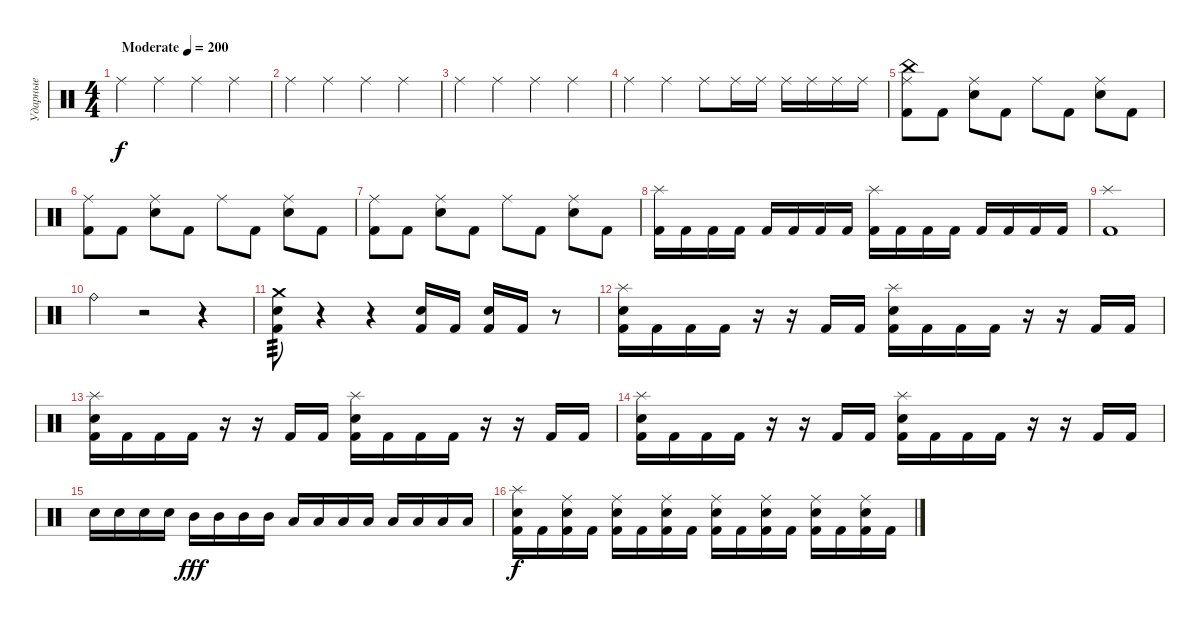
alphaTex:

\track ("Ударные" "Ударные") {instrument percussion}
\staff {score}
\articulation defaults
\ts (4 4)
\tempo (200 "Moderate")
\clef neutral
\ks c "Ride (middle)".4{dy f} "Ride (middle)".4 "Ride (middle)".4 "Ride (middle)".4
|
"Ride (middle)".4 "Ride (middle)".4 "Ride (middle)".4 "Ride (middle)".4 |
"Ride (middle)".4 "Ride (middle)".4 "Ride (middle)".4 "Ride (middle)".4 |
"Ride (middle)".4 "Ride (middle)".4 "Ride (middle)".8 "Ride (middle)".16 "Ride (middle)".16 "Ride (middle)".16 "Ride (middle)".16 "Ride (middle)".16 "Ride (middle)".16 |
("China (hit)" "Ride (middle)" "Kick (hit) 2").8 "Kick (hit) 2".8 ("Ride (middle)" "Electric Snare (hit)").8 "Kick (hit) 2".8 "Ride (middle)".8 "Kick (hit) 2".8 ("Ride (middle)" "Electric Snare (hit)").8 "Kick (hit) 2".8 |
("Ride (middle)" "Kick (hit) 2").8 "Kick (hit) 2".8 ("Ride (middle)" "Electric Snare (hit)").8 "Kick (hit) 2".8 "Ride (middle)".8 "Kick (hit) 2".8 ("Ride (middle)" "Electric Snare (hit)").8 "Kick (hit) 2".8 |
("Ride (middle)" "Kick (hit) 2").8 "Kick (hit) 2".8 ("Ride (middle)" "Electric Snare (hit)").8 "Kick (hit) 2".8 "Ride (middle)".8 "Kick (hit) 2".8 ("Ride (middle)" "Electric Snare (hit)").8 "Kick (hit) 2".8 |
("Splash (hit)" "Kick (hit) 2").16 "Kick (hit) 2".16 "Kick (hit) 2".16 "Kick (hit) 2".16 "Kick (hit) 2".16 "Kick (hit) 2".16 "Kick (hit) 2".16 "Kick (hit) 2".16 ("Splash (hit)" "Kick (hit) 2").16 "Kick (hit) 2".16 "Kick (hit) 2".16 "Kick (hit) 2".16 "Kick (hit) 2".16 "Kick (hit) 2".16 "Kick (hit) 2".16 "Kick (hit) 2".16 |
("Splash (hit)" "Kick (hit) 2").1 |
"Ride (bell)".4 r.2 r.4 |
("Crash medium (hit)" "Electric Snare (hit)" "Kick (hit) 2").8{tp 3} r.4 r.4 ("Electric Snare (hit)" "Kick (hit) 2").16 "Kick (hit) 2".16 ("Electric Snare (hit)" "Kick (hit) 2").16 "Kick (hit) 2".16 r.8 |
("Splash (hit)" "Electric Snare (hit)" "Kick (hit) 2").16 "Kick (hit) 2".16 "Kick (hit) 2".16 "Kick (hit) 2".16 r.16 r.16 "Kick (hit) 2".16 "Kick (hit) 2".16 ("Splash (hit)" "Electric Snare (hit)" "Kick (hit) 2").16 "Kick (hit) 2".16 "Kick (hit) 2".16 "Kick (hit) 2".16 r.16 r.16 "Kick (hit) 2".16 "Kick (hit) 2".16 |
("Splash (hit)" "Electric Snare (hit)" "Kick (hit) 2").16 "Kick (hit) 2".16 "Kick (hit) 2".16 "Kick (hit) 2".16 r.16 r.16 "Kick (hit) 2".16 "Kick (hit) 2".16 ("Splash (hit)" "Electric Snare (hit)" "Kick (hit) 2").16 "Kick (hit) 2".16 "Kick (hit) 2".16 "Kick (hit) 2".16 r.16 r.16 "Kick (hit) 2".16 "Kick (hit) 2".16 |
("Splash (hit)" "Electric Snare (hit)" "Kick (hit) 2").16 "Kick (hit) 2".16 "Kick (hit) 2".16 "Kick (hit) 2".16 r.16 r.16 "Kick (hit) 2".16 "Kick (hit) 2".16 ("Splash (hit)" "Electric Snare (hit)" "Kick (hit) 2").16 "Kick (hit) 2".16 "Kick (hit) 2".16 "Kick (hit) 2".16 r.16 r.16 "Kick (hit) 2".16 "Kick (hit) 2".16 |
"Snare (hit) 2".16 "Snare (hit) 2".16 "Snare (hit) 2".16 "Snare (hit) 2".16 "Mid Tom (hit)".16{dy fff} "Mid Tom (hit)".16 "Mid Tom (hit)".16 "Mid Tom (hit)".16 "Low Tom (hit)".16 "Low Tom (hit)".16 "Low Tom (hit)".16 "Low Tom (hit)".16 "Low Floor Tom (hit)".16 "Low Floor Tom (hit)".16 "Low Floor Tom (hit)".16 "Low Floor Tom (hit)".16 |
("Splash (hit)" "Electric Snare (hit)" "Kick (hit) 2").16{dy f} "Kick (hit) 2".16 ("Ride (middle)" "Electric Snare (hit)" "Kick (hit) 2").16 "Kick (hit) 2".16 ("Ride (middle)" "Electric Snare (hit)" "Kick (hit) 2").16 "Kick (hit) 2".16 ("Ride (middle)" "Electric Snare (hit)" "Kick (hit) 2").16 "Kick (hit) 2".16 ("Ride (middle)" "Electric Snare (hit)" "Kick (hit) 2").16 "Kick (hit) 2".16 ("Ride (middle)" "Electric Snare (hit)" "Kick (hit) 2").16 "Kick (hit) 2".16 ("Ride (middle)" "Electric Snare (hit)" "Kick (hit) 2").16 "Kick (hit) 2".16 ("Ride (middle)" "Electric Snare (hit)" "Kick (hit) 2").16 "Kick (hit) 2".16
